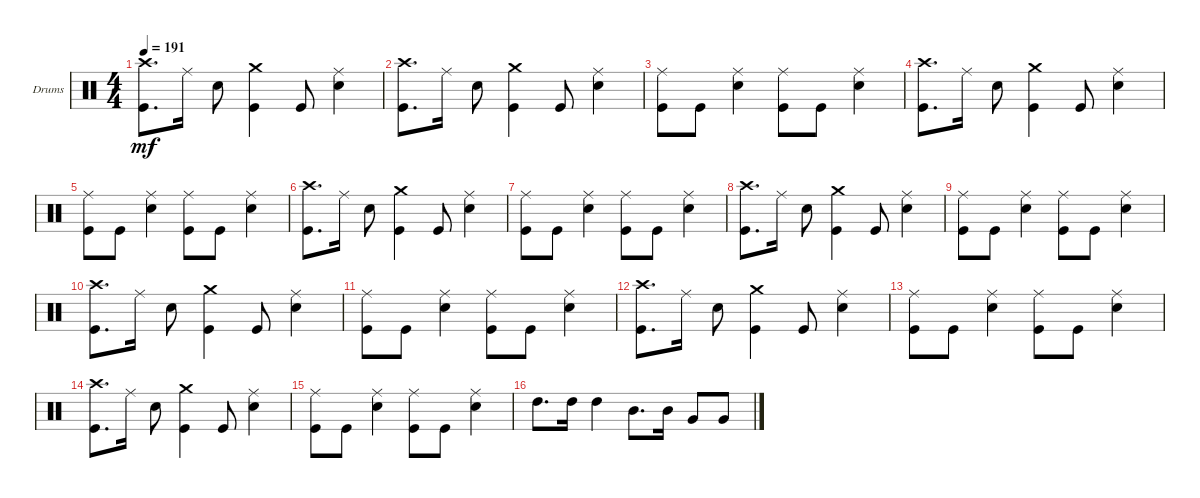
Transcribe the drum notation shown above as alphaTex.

\defaultSystemsLayout 4
\bracketExtendMode groupsimilarinstruments
\firstSystemTrackNameOrientation horizontal
\otherSystemsTrackNameOrientation horizontal
\track ("Drumkit" "Drums") {instrument percussion}
\staff {score}
\articulation defaults
\ts (4 4)
\tempo 191
\clef neutral
\scale
0.333333
\ks c
("Crash high (hit)" "Kick (hit)").8{d dy mf} "Ride (middle)".16 "Snare (hit) 2".8 ("Kick (hit)" "Crash medium (hit)").4 "Kick (hit)".8 ("Snare (hit) 2" "Ride (middle)").4 |
\scale
0.333333 ("Crash high (hit)" "Kick (hit)").8{d} "Ride (middle)".16 "Snare (hit) 2".8 ("Kick (hit)" "Crash medium (hit)").4 "Kick (hit)".8 ("Snare (hit) 2" "Ride (middle)").4 |
\scale
0.333333 ("Kick (hit)" "Ride (middle)").8 "Kick (hit)".8 ("Snare (hit) 2" "Ride (middle)").4 ("Kick (hit)" "Ride (middle)").8 "Kick (hit)".8 ("Snare (hit) 2" "Ride (middle)").4 |
\scale
0.333333 ("Crash high (hit)" "Kick (hit)").8{d} "Ride (middle)".16 "Snare (hit) 2".8 ("Kick (hit)" "Crash medium (hit)").4 "Kick (hit)".8 ("Snare (hit) 2" "Ride (middle)").4 |
\scale
0.333333 ("Kick (hit)" "Ride (middle)").8 "Kick (hit)".8 ("Snare (hit) 2" "Ride (middle)").4 ("Kick (hit)" "Ride (middle)").8 "Kick (hit)".8 ("Snare (hit) 2" "Ride (middle)").4 |
\scale
0.333333 ("Crash high (hit)" "Kick (hit)").8{d} "Ride (middle)".16 "Snare (hit) 2".8 ("Kick (hit)" "Crash medium (hit)").4 "Kick (hit)".8 ("Snare (hit) 2" "Ride (middle)").4 |
\scale
0.333333 ("Kick (hit)" "Ride (middle)").8 "Kick (hit)".8 ("Snare (hit) 2" "Ride (middle)").4 ("Kick (hit)" "Ride (middle)").8 "Kick (hit)".8 ("Snare (hit) 2" "Ride (middle)").4 |
\scale
0.333333 ("Crash high (hit)" "Kick (hit)").8{d} "Ride (middle)".16 "Snare (hit) 2".8 ("Kick (hit)" "Crash medium (hit)").4 "Kick (hit)".8 ("Snare (hit) 2" "Ride (middle)").4 |
\scale
0.333333 ("Kick (hit)" "Ride (middle)").8 "Kick (hit)".8 ("Snare (hit) 2" "Ride (middle)").4 ("Kick (hit)" "Ride (middle)").8 "Kick (hit)".8 ("Snare (hit) 2" "Ride (middle)").4 |
\scale
0.333333 ("Crash high (hit)" "Kick (hit)").8{d} "Ride (middle)".16 "Snare (hit) 2".8 ("Kick (hit)" "Crash medium (hit)").4 "Kick (hit)".8 ("Snare (hit) 2" "Ride (middle)").4 |
\scale
0.333333 ("Kick (hit)" "Ride (middle)").8 "Kick (hit)".8 ("Snare (hit) 2" "Ride (middle)").4 ("Kick (hit)" "Ride (middle)").8 "Kick (hit)".8 ("Snare (hit) 2" "Ride (middle)").4 |
\scale
0.333333 ("Crash high (hit)" "Kick (hit)").8{d} "Ride (middle)".16 "Snare (hit) 2".8 ("Kick (hit)" "Crash medium (hit)").4 "Kick (hit)".8 ("Snare (hit) 2" "Ride (middle)").4 |
\scale
0.333333 ("Kick (hit)" "Ride (middle)").8 "Kick (hit)".8 ("Snare (hit) 2" "Ride (middle)").4 ("Kick (hit)" "Ride (middle)").8 "Kick (hit)".8 ("Snare (hit) 2" "Ride (middle)").4 |
\scale
0.333333 ("Crash high (hit)" "Kick (hit)").8{d} "Ride (middle)".16 "Snare (hit) 2".8 ("Kick (hit)" "Crash medium (hit)").4 "Kick (hit)".8 ("Snare (hit) 2" "Ride (middle)").4 |
\scale
0.333333 ("Kick (hit)" "Ride (middle)").8 "Kick (hit)".8 ("Snare (hit) 2" "Ride (middle)").4 ("Kick (hit)" "Ride (middle)").8 "Kick (hit)".8 ("Snare (hit) 2" "Ride (middle)").4 |
\scale
0.333333 "High Tom (hit)".8{d} "High Tom (hit)".16 "High Tom (hit)".4 "Mid Tom (hit)".8{d} "Mid Tom (hit)".16 "Very Low Tom (hit)".8 "Very Low Tom (hit)".8
